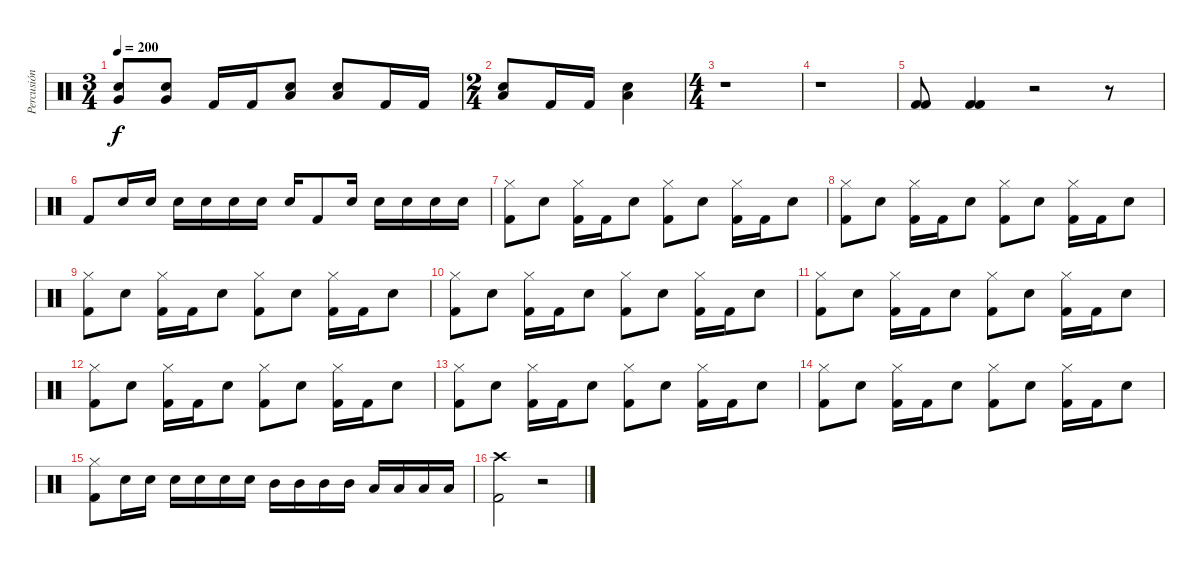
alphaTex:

\track ("Percusión" "Percusión") {instrument percussion}
\staff {score}
\articulation defaults
\ts (3 4)
\tempo 200
\clef neutral
\ks c
("Very Low Tom (hit)" "Electric Snare (hit)").8{dy f} ("Very Low Tom (hit)" "Electric Snare (hit)").8 "Kick (hit) 2".16 "Kick (hit) 2".16 ("Low Tom (hit)" "Electric Snare (hit)").8 ("Low Tom (hit)" "Electric Snare (hit)").8 "Kick (hit) 2".16 "Kick (hit) 2".16 |
\ts (2 4)
("Low Tom (hit)" "Electric Snare (hit)").8 "Kick (hit) 2".16 "Kick (hit) 2".16 ("Low Tom (hit)" "Electric Snare (hit)").4 |
\ts (4 4)
r.1 |
r.1 |
("Kick (hit) 2" "Kick (hit) 2").8{volume 16} ("Kick (hit) 2" "Kick (hit) 2").4{volume 16} r.2 r.8 |
"Kick (hit) 2".8 "Electric Snare (hit)".16 "Electric Snare (hit)".16 "Electric Snare (hit)".16 "Electric Snare (hit)".16 "Electric Snare (hit)".16 "Electric Snare (hit)".16 "Electric Snare (hit)".16 "Kick (hit) 2".8 "Electric Snare (hit)".16 "Electric Snare (hit)".16 "Electric Snare (hit)".16 "Electric Snare (hit)".16 "Electric Snare (hit)".16 |
("Hi-Hat (closed)" "Kick (hit) 2").8 "Electric Snare (hit)".8 ("Hi-Hat (closed)" "Kick (hit) 2").16 "Kick (hit) 2".16 "Electric Snare (hit)".8 ("Hi-Hat (closed)" "Kick (hit) 2").8 "Electric Snare (hit)".8 ("Hi-Hat (closed)" "Kick (hit) 2").16 "Kick (hit) 2".16 "Electric Snare (hit)".8 |
("Hi-Hat (closed)" "Kick (hit) 2").8 "Electric Snare (hit)".8 ("Hi-Hat (closed)" "Kick (hit) 2").16 "Kick (hit) 2".16 "Electric Snare (hit)".8 ("Hi-Hat (closed)" "Kick (hit) 2").8 "Electric Snare (hit)".8 ("Hi-Hat (closed)" "Kick (hit) 2").16 "Kick (hit) 2".16 "Electric Snare (hit)".8 |
("Hi-Hat (closed)" "Kick (hit) 2").8 "Electric Snare (hit)".8 ("Hi-Hat (closed)" "Kick (hit) 2").16 "Kick (hit) 2".16 "Electric Snare (hit)".8 ("Hi-Hat (closed)" "Kick (hit) 2").8 "Electric Snare (hit)".8 ("Hi-Hat (closed)" "Kick (hit) 2").16 "Kick (hit) 2".16 "Electric Snare (hit)".8 |
("Hi-Hat (closed)" "Kick (hit) 2").8 "Electric Snare (hit)".8 ("Hi-Hat (closed)" "Kick (hit) 2").16 "Kick (hit) 2".16 "Electric Snare (hit)".8 ("Hi-Hat (closed)" "Kick (hit) 2").8 "Electric Snare (hit)".8 ("Hi-Hat (closed)" "Kick (hit) 2").16 "Kick (hit) 2".16 "Electric Snare (hit)".8 |
("Hi-Hat (closed)" "Kick (hit) 2").8 "Electric Snare (hit)".8 ("Hi-Hat (closed)" "Kick (hit) 2").16 "Kick (hit) 2".16 "Electric Snare (hit)".8 ("Hi-Hat (closed)" "Kick (hit) 2").8 "Electric Snare (hit)".8 ("Hi-Hat (closed)" "Kick (hit) 2").16 "Kick (hit) 2".16 "Electric Snare (hit)".8 |
("Hi-Hat (closed)" "Kick (hit) 2").8 "Electric Snare (hit)".8 ("Hi-Hat (closed)" "Kick (hit) 2").16 "Kick (hit) 2".16 "Electric Snare (hit)".8 ("Hi-Hat (closed)" "Kick (hit) 2").8 "Electric Snare (hit)".8 ("Hi-Hat (closed)" "Kick (hit) 2").16 "Kick (hit) 2".16 "Electric Snare (hit)".8 |
("Hi-Hat (closed)" "Kick (hit) 2").8 "Electric Snare (hit)".8 ("Hi-Hat (closed)" "Kick (hit) 2").16 "Kick (hit) 2".16 "Electric Snare (hit)".8 ("Hi-Hat (closed)" "Kick (hit) 2").8 "Electric Snare (hit)".8 ("Hi-Hat (closed)" "Kick (hit) 2").16 "Kick (hit) 2".16 "Electric Snare (hit)".8 |
("Hi-Hat (closed)" "Kick (hit) 2").8 "Electric Snare (hit)".8 ("Hi-Hat (closed)" "Kick (hit) 2").16 "Kick (hit) 2".16 "Electric Snare (hit)".8 ("Hi-Hat (closed)" "Kick (hit) 2").8 "Electric Snare (hit)".8 ("Hi-Hat (closed)" "Kick (hit) 2").16 "Kick (hit) 2".16 "Electric Snare (hit)".8 |
("Hi-Hat (closed)" "Kick (hit) 2").8 "Electric Snare (hit)".16 "Electric Snare (hit)".16 "Electric Snare (hit)".16 "Electric Snare (hit)".16 "Electric Snare (hit)".16 "Electric Snare (hit)".16 "Mid Tom (hit)".16 "Mid Tom (hit)".16 "Mid Tom (hit)".16 "Mid Tom (hit)".16 "Low Tom (hit)".16 "Low Tom (hit)".16 "Low Tom (hit)".16 "Low Tom (hit)".16 |
("Crash high (hit)" "Kick (hit) 2").2 r.2
